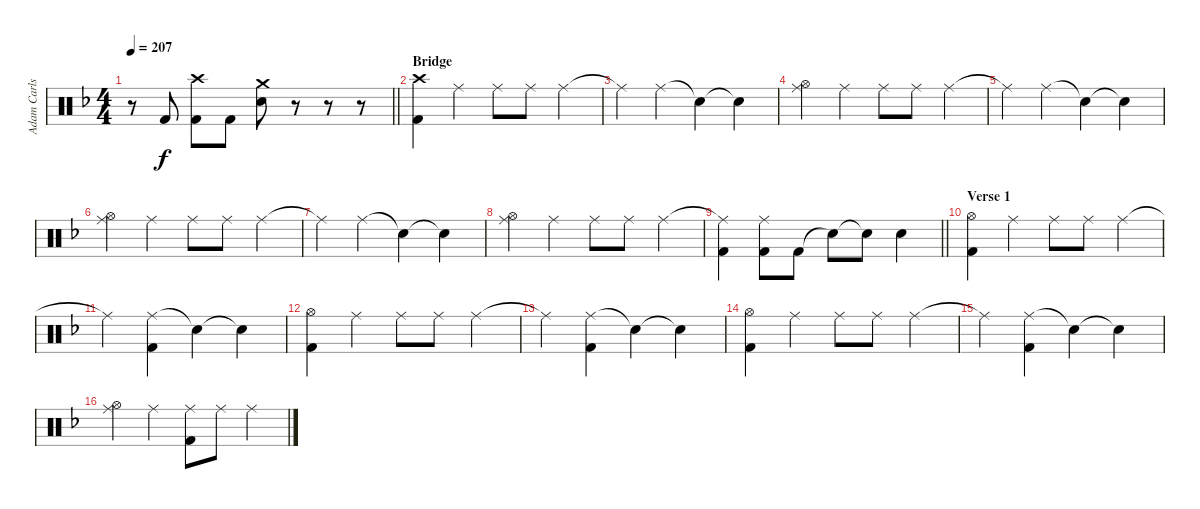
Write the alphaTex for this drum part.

\track ("Adam Carlson" "Adam Carls") {instrument percussion}
\staff {score}
\articulation defaults
\ts (4 4)
\tempo 207
\clef neutral
\barLineRight lightlight
\ks f
r.8{dy f} "Kick (hit) 2".8 ("Crash high (hit)" "Kick (hit) 2").8 "Kick (hit) 2".8 ("Crash medium (hit)" "Electric Snare (hit)").8 r.8 r.8 r.8 |
\section ("" "Bridge")
("Crash high (hit)" "Kick (hit) 2").4 "Ride (middle)".4 "Ride (middle)".8 "Ride (middle)".8 "Ride (middle)".4 |
"Ride (middle)"{t}.4 "Ride (middle)".4 "Snare (hit)"{t}.4 "Snare (hit)"{t}.4 |
("Ride (middle)" "Hi-Hat (open)").4 "Ride (middle)".4 "Ride (middle)".8 "Ride (middle)".8 "Ride (middle)".4 |
"Ride (middle)"{t}.4 "Ride (middle)".4 "Snare (hit)"{t}.4 "Snare (hit)"{t}.4 |
("Ride (middle)" "Hi-Hat (open)").4 "Ride (middle)".4 "Ride (middle)".8 "Ride (middle)".8 "Ride (middle)".4 |
"Ride (middle)"{t}.4 "Ride (middle)".4 "Snare (hit)"{t}.4 "Snare (hit)"{t}.4 |
("Ride (middle)" "Hi-Hat (open)").4 "Ride (middle)".4 "Ride (middle)".8 "Ride (middle)".8 "Ride (middle)".4 |
\barLineRight lightlight
("Ride (middle)"{t} "Kick (hit) 2").4 ("Ride (middle)" "Kick (hit) 2").8 "Kick (hit) 2".8 "Snare (hit)"{t}.8 "Snare (hit)"{t}.8 "Electric Snare (hit)".4 |
\section ("" "Verse 1")
("Hi-Hat (open)" "Kick (hit) 2").4 "Ride (middle)".4 "Ride (middle)".8 "Ride (middle)".8 "Ride (middle)".4 |
"Ride (middle)"{t}.4 ("Ride (middle)" "Kick (hit) 2").4 "Snare (hit)"{t}.4 "Snare (hit)"{t}.4 |
("Hi-Hat (open)" "Kick (hit) 2").4 "Ride (middle)".4 "Ride (middle)".8 "Ride (middle)".8 "Ride (middle)".4 |
"Ride (middle)"{t}.4 ("Ride (middle)" "Kick (hit) 2").4 "Snare (hit)"{t}.4 "Snare (hit)"{t}.4 |
("Hi-Hat (open)" "Kick (hit) 2").4 "Ride (middle)".4 "Ride (middle)".8 "Ride (middle)".8 "Ride (middle)".4 |
"Ride (middle)"{t}.4 ("Ride (middle)" "Kick (hit) 2").4 "Snare (hit)"{t}.4 "Snare (hit)"{t}.4 |
("Ride (middle)" "Hi-Hat (open)").4 "Ride (middle)".4 ("Ride (middle)" "Kick (hit) 2").8 "Ride (middle)".8 "Ride (middle)".4
